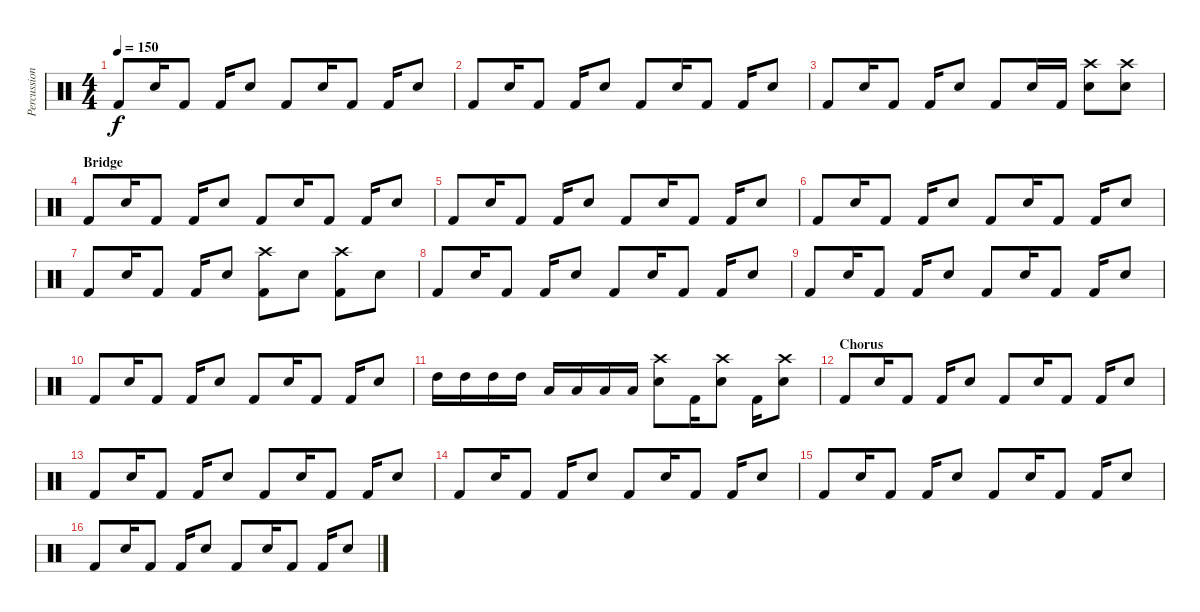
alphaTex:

\track ("Percussion" "Percussion") {instrument percussion}
\staff {score}
\articulation defaults
\ts (4 4)
\tempo 150
\clef neutral
\ks c "Kick (hit) 2".8{dy f} "Snare (hit) 2".16 "Kick (hit) 2".8 "Kick (hit) 2".16 "Snare (hit) 2".8 "Kick (hit) 2".8 "Snare (hit) 2".16 "Kick (hit) 2".8 "Kick (hit) 2".16 "Snare (hit) 2".8
|
"Kick (hit) 2".8 "Snare (hit) 2".16 "Kick (hit) 2".8 "Kick (hit) 2".16 "Snare (hit) 2".8 "Kick (hit) 2".8 "Snare (hit) 2".16 "Kick (hit) 2".8 "Kick (hit) 2".16 "Snare (hit) 2".8 |
"Kick (hit) 2".8 "Snare (hit) 2".16 "Kick (hit) 2".8 "Kick (hit) 2".16 "Snare (hit) 2".8 "Kick (hit) 2".8 "Snare (hit) 2".16 "Kick (hit) 2".16 ("Crash high (hit)" "Snare (hit) 2").8 ("Crash high (hit)" "Snare (hit) 2").8 |
\section ("" "Bridge")
"Kick (hit) 2".8 "Snare (hit) 2".16 "Kick (hit) 2".8 "Kick (hit) 2".16 "Snare (hit) 2".8 "Kick (hit) 2".8 "Snare (hit) 2".16 "Kick (hit) 2".8 "Kick (hit) 2".16 "Snare (hit) 2".8 |
"Kick (hit) 2".8 "Snare (hit) 2".16 "Kick (hit) 2".8 "Kick (hit) 2".16 "Snare (hit) 2".8 "Kick (hit) 2".8 "Snare (hit) 2".16 "Kick (hit) 2".8 "Kick (hit) 2".16 "Snare (hit) 2".8 |
"Kick (hit) 2".8 "Snare (hit) 2".16 "Kick (hit) 2".8 "Kick (hit) 2".16 "Snare (hit) 2".8 "Kick (hit) 2".8 "Snare (hit) 2".16 "Kick (hit) 2".8 "Kick (hit) 2".16 "Snare (hit) 2".8 |
"Kick (hit) 2".8 "Snare (hit) 2".16 "Kick (hit) 2".8 "Kick (hit) 2".16 "Snare (hit) 2".8 ("Crash high (hit)" "Kick (hit) 2").8 "Snare (hit) 2".8 ("Crash high (hit)" "Kick (hit) 2").8 "Snare (hit) 2".8 |
"Kick (hit) 2".8 "Snare (hit) 2".16 "Kick (hit) 2".8 "Kick (hit) 2".16 "Snare (hit) 2".8 "Kick (hit) 2".8 "Snare (hit) 2".16 "Kick (hit) 2".8 "Kick (hit) 2".16 "Snare (hit) 2".8 |
"Kick (hit) 2".8 "Snare (hit) 2".16 "Kick (hit) 2".8 "Kick (hit) 2".16 "Snare (hit) 2".8 "Kick (hit) 2".8 "Snare (hit) 2".16 "Kick (hit) 2".8 "Kick (hit) 2".16 "Snare (hit) 2".8 |
"Kick (hit) 2".8 "Snare (hit) 2".16 "Kick (hit) 2".8 "Kick (hit) 2".16 "Snare (hit) 2".8 "Kick (hit) 2".8 "Snare (hit) 2".16 "Kick (hit) 2".8 "Kick (hit) 2".16 "Snare (hit) 2".8 |
"High Tom (hit)".16 "High Tom (hit)".16 "High Tom (hit)".16 "High Tom (hit)".16 "Low Tom (hit)".16 "Low Tom (hit)".16 "Low Tom (hit)".16 "Low Tom (hit)".16 ("Crash high (hit)" "Snare (hit) 2").8 "Kick (hit) 2".16 ("Crash high (hit)" "Snare (hit) 2").8 "Kick (hit) 2".16 ("Crash high (hit)" "Snare (hit) 2").8 |
\section ("" "Chorus")
"Kick (hit) 2".8 "Snare (hit) 2".16 "Kick (hit) 2".8 "Kick (hit) 2".16 "Snare (hit) 2".8 "Kick (hit) 2".8 "Snare (hit) 2".16 "Kick (hit) 2".8 "Kick (hit) 2".16 "Snare (hit) 2".8 |
"Kick (hit) 2".8 "Snare (hit) 2".16 "Kick (hit) 2".8 "Kick (hit) 2".16 "Snare (hit) 2".8 "Kick (hit) 2".8 "Snare (hit) 2".16 "Kick (hit) 2".8 "Kick (hit) 2".16 "Snare (hit) 2".8 |
"Kick (hit) 2".8 "Snare (hit) 2".16 "Kick (hit) 2".8 "Kick (hit) 2".16 "Snare (hit) 2".8 "Kick (hit) 2".8 "Snare (hit) 2".16 "Kick (hit) 2".8 "Kick (hit) 2".16 "Snare (hit) 2".8 |
"Kick (hit) 2".8 "Snare (hit) 2".16 "Kick (hit) 2".8 "Kick (hit) 2".16 "Snare (hit) 2".8 "Kick (hit) 2".8 "Snare (hit) 2".16 "Kick (hit) 2".8 "Kick (hit) 2".16 "Snare (hit) 2".8 |
"Kick (hit) 2".8 "Snare (hit) 2".16 "Kick (hit) 2".8 "Kick (hit) 2".16 "Snare (hit) 2".8 "Kick (hit) 2".8 "Snare (hit) 2".16 "Kick (hit) 2".8 "Kick (hit) 2".16 "Snare (hit) 2".8
